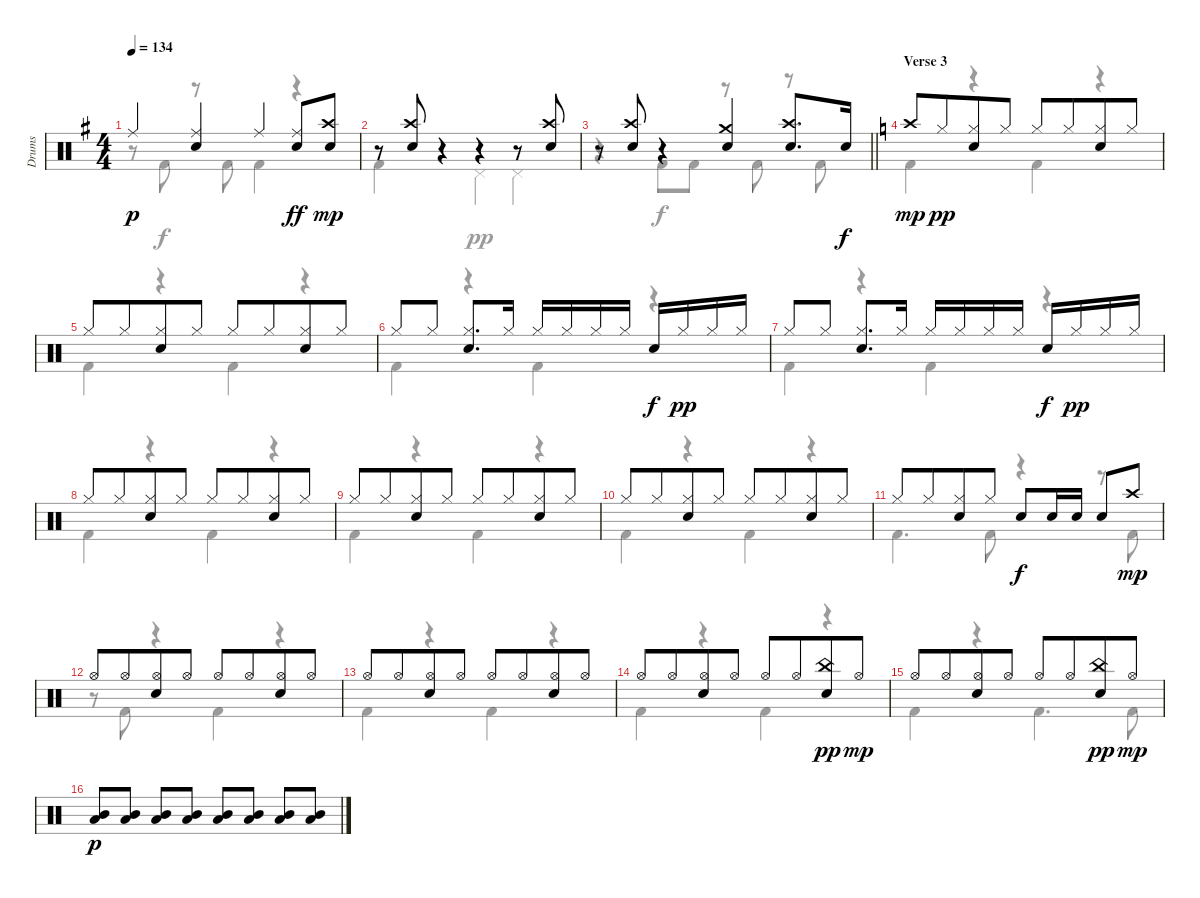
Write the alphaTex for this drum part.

\track ("Drums" "Drums") {instrument percussion}
\staff {score}
\articulation defaults
\voice
\ts (4 4)
\tempo 134
\clef neutral
\ks g "Ride (middle)".4{dy p}
("Ride (middle)" "Electric Snare (hit)").4 "Ride (middle)".4 ("Ride (middle)" "Electric Snare (hit)").8{dy ff} ("Electric Snare (hit)" "Crash high (hit)").8{dy mp} |
r.8 ("Electric Snare (hit)" "Crash high (hit)").8 r.4 r.4 r.8 ("Electric Snare (hit)" "Crash high (hit)").8 |
\barLineRight lightlight
r.8 ("Electric Snare (hit)" "Crash high (hit)").8 r.4 ("Electric Snare (hit)" "Crash medium (hit)").4 ("Electric Snare (hit)" "Crash high (hit)").8{d} "Electric Snare (hit)".16{dy f} |
\section ("" "Verse 3")
\ks c "Crash high (hit)".8{dy mp} "Hi-Hat (closed)".8{dy pp beam merge}
("Hi-Hat (closed)" "Electric Snare (hit)").8 "Hi-Hat (closed)".8 "Hi-Hat (closed)".8 "Hi-Hat (closed)".8{beam merge} ("Hi-Hat (closed)" "Electric Snare (hit)").8 "Hi-Hat (closed)".8 |
"Hi-Hat (closed)".8 "Hi-Hat (closed)".8{beam merge} ("Hi-Hat (closed)" "Electric Snare (hit)").8 "Hi-Hat (closed)".8 "Hi-Hat (closed)".8 "Hi-Hat (closed)".8{beam merge} ("Hi-Hat (closed)" "Electric Snare (hit)").8 "Hi-Hat (closed)".8 |
"Hi-Hat (closed)".8 "Hi-Hat (closed)".8 ("Hi-Hat (closed)" "Electric Snare (hit)").8{d} "Hi-Hat (closed)".16 "Hi-Hat (closed)".16 "Hi-Hat (closed)".16 "Hi-Hat (closed)".16 "Hi-Hat (closed)".16 "Electric Snare (hit)".16{dy f} "Hi-Hat (closed)".16{dy pp} "Hi-Hat (closed)".16 "Hi-Hat (closed)".16 |
"Hi-Hat (closed)".8 "Hi-Hat (closed)".8 ("Hi-Hat (closed)" "Electric Snare (hit)").8{d} "Hi-Hat (closed)".16 "Hi-Hat (closed)".16 "Hi-Hat (closed)".16 "Hi-Hat (closed)".16 "Hi-Hat (closed)".16 "Electric Snare (hit)".16{dy f} "Hi-Hat (closed)".16{dy pp} "Hi-Hat (closed)".16 "Hi-Hat (closed)".16 |
"Hi-Hat (closed)".8 "Hi-Hat (closed)".8{beam merge} ("Hi-Hat (closed)" "Electric Snare (hit)").8 "Hi-Hat (closed)".8 "Hi-Hat (closed)".8 "Hi-Hat (closed)".8{beam merge} ("Hi-Hat (closed)" "Electric Snare (hit)").8 "Hi-Hat (closed)".8 |
"Hi-Hat (closed)".8 "Hi-Hat (closed)".8{beam merge} ("Hi-Hat (closed)" "Electric Snare (hit)").8 "Hi-Hat (closed)".8 "Hi-Hat (closed)".8 "Hi-Hat (closed)".8{beam merge} ("Hi-Hat (closed)" "Electric Snare (hit)").8 "Hi-Hat (closed)".8 |
"Hi-Hat (closed)".8 "Hi-Hat (closed)".8{beam merge} ("Hi-Hat (closed)" "Electric Snare (hit)").8 "Hi-Hat (closed)".8 "Hi-Hat (closed)".8 "Hi-Hat (closed)".8{beam merge} ("Hi-Hat (closed)" "Electric Snare (hit)").8 "Hi-Hat (closed)".8 |
"Hi-Hat (closed)".8 "Hi-Hat (closed)".8{beam merge} ("Hi-Hat (closed)" "Electric Snare (hit)").8 "Hi-Hat (closed)".8 "Electric Snare (hit)".8{dy f} "Electric Snare (hit)".16 "Electric Snare (hit)".16 "Electric Snare (hit)".8 "Crash high (hit)".8{dy mp} |
"Hi-Hat (open)".8 "Hi-Hat (open)".8{beam merge} ("Hi-Hat (open)" "Electric Snare (hit)").8 "Hi-Hat (open)".8 "Hi-Hat (open)".8 "Hi-Hat (open)".8{beam merge} ("Hi-Hat (open)" "Electric Snare (hit)").8 "Hi-Hat (open)".8 |
"Hi-Hat (open)".8 "Hi-Hat (open)".8{beam merge} ("Hi-Hat (open)" "Electric Snare (hit)").8 "Hi-Hat (open)".8 "Hi-Hat (open)".8 "Hi-Hat (open)".8{beam merge} ("Hi-Hat (open)" "Electric Snare (hit)").8 "Hi-Hat (open)".8 |
"Hi-Hat (open)".8 "Hi-Hat (open)".8{beam merge} ("Hi-Hat (open)" "Electric Snare (hit)").8 "Hi-Hat (open)".8 "Hi-Hat (open)".8 "Hi-Hat (open)".8{beam merge} ("China (hit)" "Electric Snare (hit)").8{dy pp} "Hi-Hat (open)".8{dy mp} |
"Hi-Hat (open)".8 "Hi-Hat (open)".8{beam merge} ("Hi-Hat (open)" "Electric Snare (hit)").8 "Hi-Hat (open)".8 "Hi-Hat (open)".8 "Hi-Hat (open)".8{beam merge} ("China (hit)" "Electric Snare (hit)").8{dy pp} "Hi-Hat (open)".8{dy mp} |
\ks aminor
("Low Tom (hit)" "Mid Tom (hit)").8{dy p beam Up} ("Low Tom (hit)" "Mid Tom (hit)").8{beam Up} ("Low Tom (hit)" "Mid Tom (hit)").8{beam Up} ("Low Tom (hit)" "Mid Tom (hit)").8{beam Up} ("Low Tom (hit)" "Mid Tom (hit)").8{beam Up} ("Low Tom (hit)" "Mid Tom (hit)").8{beam Up} ("Low Tom (hit)" "Mid Tom (hit)").8{beam Up} ("Low Tom (hit)" "Mid Tom (hit)").8{beam Up}
\voice
\clef neutral
\ottava regular
\simile none
\ks g
r.8{dy f} "Kick (hit) 2".8 r.8 "Kick (hit) 2".8 "Kick (hit) 2".4 r.4 |
"Kick (hit) 2".4 r.4 "Pedal Hi-Hat (hit)".4{dy pp} "Pedal Hi-Hat (hit)".4 |
\barLineRight lightlight
r.4 "Kick (hit) 2".8{dy f} "Kick (hit) 2".8 r.8 "Kick (hit) 2".8 r.8 "Kick (hit) 2".8 |
\ks c "Kick (hit) 2".4
r.4 "Kick (hit) 2".4 r.4 |
"Kick (hit) 2".4 r.4 "Kick (hit) 2".4 r.4 |
"Kick (hit) 2".4 r.4 "Kick (hit) 2".4 r.4 |
"Kick (hit) 2".4 r.4 "Kick (hit) 2".4 r.4 |
"Kick (hit) 2".4 r.4 "Kick (hit) 2".4 r.4 |
"Kick (hit) 2".4 r.4 "Kick (hit) 2".4 r.4 |
"Kick (hit) 2".4 r.4 "Kick (hit) 2".4 r.4 |
"Kick (hit) 2".4{d} "Kick (hit) 2".8 r.4 r.8 "Kick (hit) 2".8 |
r.8 "Kick (hit) 2".8 r.4 "Kick (hit) 2".4 r.4 |
"Kick (hit) 2".4 r.4 "Kick (hit) 2".4 r.4 |
"Kick (hit) 2".4 r.4 "Kick (hit) 2".4 r.4 |
"Kick (hit) 2".4 r.4 "Kick (hit) 2".4{d} "Kick (hit) 2".8 |
\ks aminor
